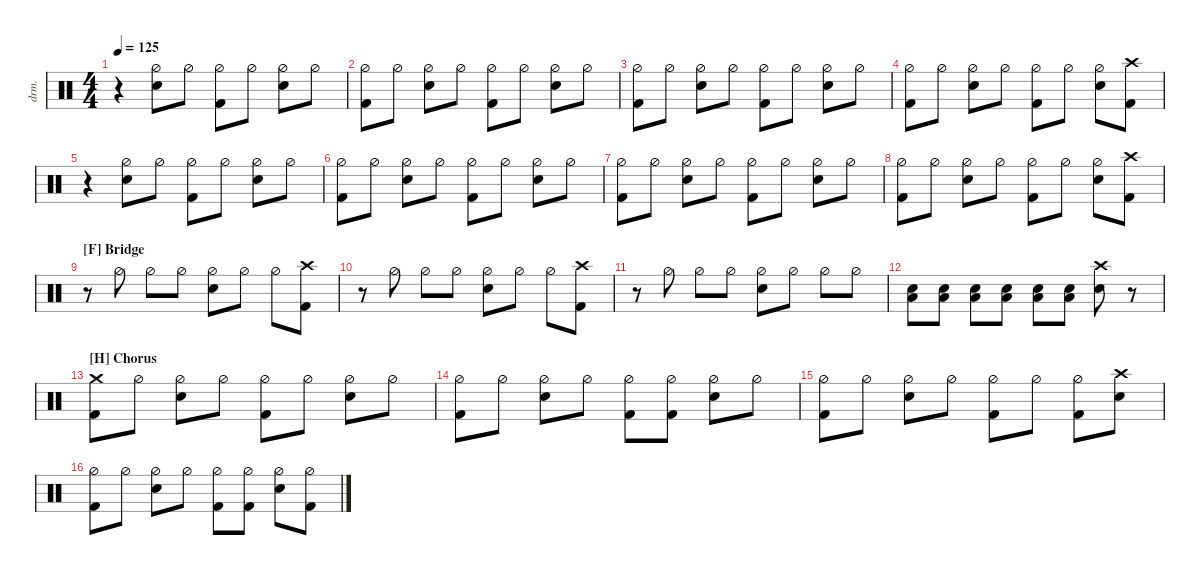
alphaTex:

\defaultSystemsLayout 4
\hideDynamics
\bracketExtendMode nobrackets
\otherSystemsTrackNameOrientation horizontal
\track ("Drums" "drm.") {defaultSystemsLayout 4 multiBarRest instrument percussion}
\staff
\articulation defaults
\ts (4 4)
\tempo 125
\clef neutral
\ks c
r.4{dy f} ("Snare (hit) 2" "Hi-Hat (half)").8 "Hi-Hat (half)".8 ("Hi-Hat (half)" "Kick (hit) 2").8 "Hi-Hat (half)".8 ("Hi-Hat (half)" "Snare (hit) 2").8 "Hi-Hat (half)".8 |
("Hi-Hat (half)" "Kick (hit) 2").8 "Hi-Hat (half)".8 ("Hi-Hat (half)" "Snare (hit) 2").8 "Hi-Hat (half)".8 ("Hi-Hat (half)" "Kick (hit) 2").8 "Hi-Hat (half)".8 ("Hi-Hat (half)" "Snare (hit) 2").8 "Hi-Hat (half)".8 |
("Hi-Hat (half)" "Kick (hit) 2").8 "Hi-Hat (half)".8 ("Hi-Hat (half)" "Snare (hit) 2").8 "Hi-Hat (half)".8 ("Hi-Hat (half)" "Kick (hit) 2").8 "Hi-Hat (half)".8 ("Hi-Hat (half)" "Snare (hit) 2").8 "Hi-Hat (half)".8 |
("Hi-Hat (half)" "Kick (hit) 2").8 "Hi-Hat (half)".8 ("Hi-Hat (half)" "Snare (hit) 2").8 "Hi-Hat (half)".8 ("Hi-Hat (half)" "Kick (hit) 2").8 "Hi-Hat (half)".8 ("Hi-Hat (half)" "Snare (hit) 2").8 ("Crash high (hit)" "Kick (hit) 2").8 |
r.4 ("Snare (hit) 2" "Hi-Hat (half)").8 "Hi-Hat (half)".8 ("Hi-Hat (half)" "Kick (hit) 2").8 "Hi-Hat (half)".8 ("Hi-Hat (half)" "Snare (hit) 2").8 "Hi-Hat (half)".8 |
("Hi-Hat (half)" "Kick (hit) 2").8 "Hi-Hat (half)".8 ("Hi-Hat (half)" "Snare (hit) 2").8 "Hi-Hat (half)".8 ("Hi-Hat (half)" "Kick (hit) 2").8 "Hi-Hat (half)".8 ("Hi-Hat (half)" "Snare (hit) 2").8 "Hi-Hat (half)".8 |
("Hi-Hat (half)" "Kick (hit) 2").8 "Hi-Hat (half)".8 ("Hi-Hat (half)" "Snare (hit) 2").8 "Hi-Hat (half)".8 ("Hi-Hat (half)" "Kick (hit) 2").8 "Hi-Hat (half)".8 ("Hi-Hat (half)" "Snare (hit) 2").8 "Hi-Hat (half)".8 |
("Hi-Hat (half)" "Kick (hit) 2").8 "Hi-Hat (half)".8 ("Hi-Hat (half)" "Snare (hit) 2").8 "Hi-Hat (half)".8 ("Hi-Hat (half)" "Kick (hit) 2").8 "Hi-Hat (half)".8 ("Hi-Hat (half)" "Snare (hit) 2").8 ("Crash high (hit)" "Kick (hit) 2").8 |
\section ("F" "Bridge")
r.8 "Hi-Hat (half)".8 "Hi-Hat (half)".8 "Hi-Hat (half)".8 ("Hi-Hat (half)" "Snare (hit) 2").8 "Hi-Hat (half)".8 "Hi-Hat (half)".8 ("Crash high (hit)" "Kick (hit) 2").8 |
r.8 "Hi-Hat (half)".8 "Hi-Hat (half)".8 "Hi-Hat (half)".8 ("Hi-Hat (half)" "Snare (hit) 2").8 "Hi-Hat (half)".8 "Hi-Hat (half)".8 ("Crash high (hit)" "Kick (hit) 2").8 |
r.8 "Hi-Hat (half)".8 "Hi-Hat (half)".8 "Hi-Hat (half)".8 ("Hi-Hat (half)" "Snare (hit) 2").8 "Hi-Hat (half)".8 "Hi-Hat (half)".8 "Hi-Hat (half)".8 |
("Low Tom (hit)" "Snare (hit) 2").8 ("Low Tom (hit)" "Snare (hit) 2").8 ("Low Tom (hit)" "Snare (hit) 2").8 ("Low Tom (hit)" "Snare (hit) 2").8 ("Low Tom (hit)" "Snare (hit) 2").8 ("Low Tom (hit)" "Snare (hit) 2").8 ("Snare (hit) 2" "Crash high (hit)").8 r.8 |
\section ("H" "Chorus")
("Kick (hit) 2" "Crash medium (hit)").8 "Hi-Hat (half)".8 ("Hi-Hat (half)" "Snare (hit) 2").8 "Hi-Hat (half)".8 ("Hi-Hat (half)" "Kick (hit) 2").8 "Hi-Hat (half)".8 ("Hi-Hat (half)" "Snare (hit) 2").8 "Hi-Hat (half)".8 |
("Hi-Hat (half)" "Kick (hit) 2").8 "Hi-Hat (half)".8 ("Hi-Hat (half)" "Snare (hit) 2").8 "Hi-Hat (half)".8 ("Hi-Hat (half)" "Kick (hit) 2").8 ("Hi-Hat (half)" "Kick (hit) 2").8 ("Hi-Hat (half)" "Snare (hit) 2").8 "Hi-Hat (half)".8 |
("Hi-Hat (half)" "Kick (hit) 2").8 "Hi-Hat (half)".8 ("Hi-Hat (half)" "Snare (hit) 2").8 "Hi-Hat (half)".8 ("Hi-Hat (half)" "Kick (hit) 2").8 "Hi-Hat (half)".8 ("Hi-Hat (half)" "Kick (hit) 2").8 ("Snare (hit) 2" "Crash high (hit)").8 |
("Hi-Hat (half)" "Kick (hit) 2").8 "Hi-Hat (half)".8 ("Hi-Hat (half)" "Snare (hit) 2").8 "Hi-Hat (half)".8 ("Hi-Hat (half)" "Kick (hit) 2").8 ("Hi-Hat (half)" "Kick (hit) 2").8 ("Hi-Hat (half)" "Snare (hit) 2").8 ("Hi-Hat (half)" "Kick (hit) 2").8
